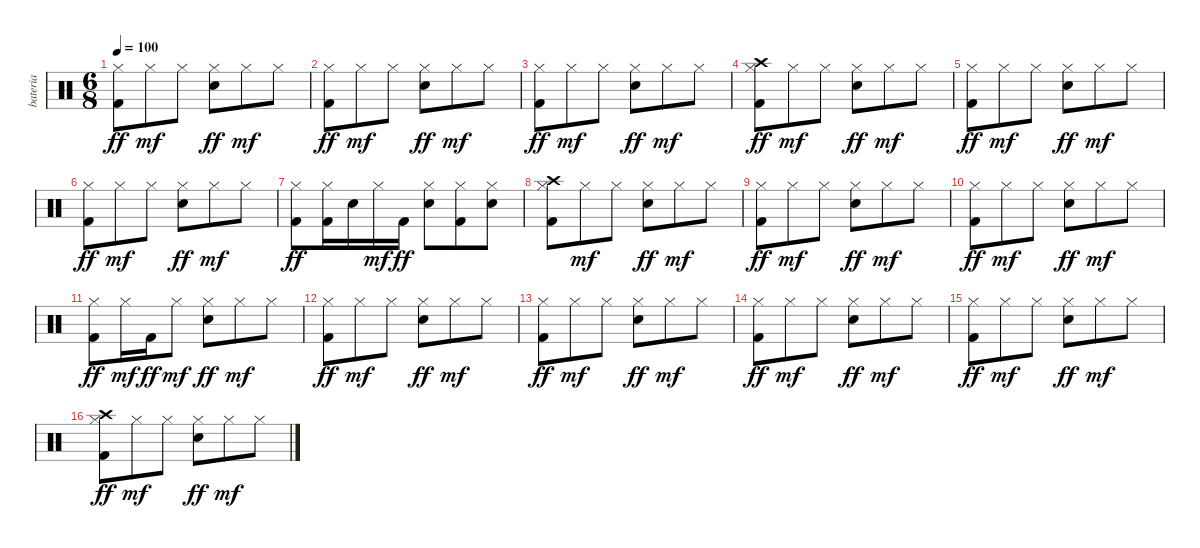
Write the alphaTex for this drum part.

\track ("bateria" "bateria") {instrument percussion}
\staff {score}
\articulation defaults
\ts (6 8)
\tempo 100
\clef neutral
\ks c
("Hi-Hat (closed)" "Kick (hit) 2").8{dy ff} "Hi-Hat (closed)".8{dy mf} "Hi-Hat (closed)".8 ("Hi-Hat (closed)" "Snare (hit) 2").8{dy ff} "Hi-Hat (closed)".8{dy mf} "Hi-Hat (closed)".8 |
("Hi-Hat (closed)" "Kick (hit) 2").8{dy ff} "Hi-Hat (closed)".8{dy mf} "Hi-Hat (closed)".8 ("Hi-Hat (closed)" "Snare (hit) 2").8{dy ff} "Hi-Hat (closed)".8{dy mf} "Hi-Hat (closed)".8 |
("Hi-Hat (closed)" "Kick (hit) 2").8{dy ff} "Hi-Hat (closed)".8{dy mf} "Hi-Hat (closed)".8 ("Hi-Hat (closed)" "Snare (hit) 2").8{dy ff} "Hi-Hat (closed)".8{dy mf} "Hi-Hat (closed)".8 |
("Crash high (hit)" "Hi-Hat (closed)" "Kick (hit) 2").8{dy ff} "Hi-Hat (closed)".8{dy mf} "Hi-Hat (closed)".8 ("Hi-Hat (closed)" "Snare (hit) 2").8{dy ff} "Hi-Hat (closed)".8{dy mf} "Hi-Hat (closed)".8 |
("Hi-Hat (closed)" "Kick (hit) 2").8{dy ff} "Hi-Hat (closed)".8{dy mf} "Hi-Hat (closed)".8 ("Hi-Hat (closed)" "Snare (hit) 2").8{dy ff} "Hi-Hat (closed)".8{dy mf} "Hi-Hat (closed)".8 |
("Hi-Hat (closed)" "Kick (hit) 2").8{dy ff} "Hi-Hat (closed)".8{dy mf} "Hi-Hat (closed)".8 ("Hi-Hat (closed)" "Snare (hit) 2").8{dy ff} "Hi-Hat (closed)".8{dy mf} "Hi-Hat (closed)".8 |
("Hi-Hat (closed)" "Kick (hit) 2").8{dy ff} ("Hi-Hat (closed)" "Kick (hit) 2").16 "Snare (hit) 2".16 "Hi-Hat (closed)".16{dy mf} "Kick (hit) 2".16{dy ff} ("Hi-Hat (closed)" "Snare (hit) 2").8 ("Hi-Hat (closed)" "Kick (hit) 2").8 ("Hi-Hat (closed)" "Snare (hit) 2").8 |
("Crash high (hit)" "Hi-Hat (closed)" "Kick (hit) 2").8 "Hi-Hat (closed)".8{dy mf} "Hi-Hat (closed)".8 ("Hi-Hat (closed)" "Snare (hit) 2").8{dy ff} "Hi-Hat (closed)".8{dy mf} "Hi-Hat (closed)".8 |
("Hi-Hat (closed)" "Kick (hit) 2").8{dy ff} "Hi-Hat (closed)".8{dy mf} "Hi-Hat (closed)".8 ("Hi-Hat (closed)" "Snare (hit) 2").8{dy ff} "Hi-Hat (closed)".8{dy mf} "Hi-Hat (closed)".8 |
("Hi-Hat (closed)" "Kick (hit) 2").8{dy ff} "Hi-Hat (closed)".8{dy mf} "Hi-Hat (closed)".8 ("Hi-Hat (closed)" "Snare (hit) 2").8{dy ff} "Hi-Hat (closed)".8{dy mf} "Hi-Hat (closed)".8 |
("Hi-Hat (closed)" "Kick (hit) 2").8{dy ff} "Hi-Hat (closed)".16{dy mf} "Kick (hit) 2".16{dy ff} "Hi-Hat (closed)".8{dy mf} ("Hi-Hat (closed)" "Snare (hit) 2").8{dy ff} "Hi-Hat (closed)".8{dy mf} "Hi-Hat (closed)".8 |
("Hi-Hat (closed)" "Kick (hit) 2").8{dy ff} "Hi-Hat (closed)".8{dy mf} "Hi-Hat (closed)".8 ("Hi-Hat (closed)" "Snare (hit) 2").8{dy ff} "Hi-Hat (closed)".8{dy mf} "Hi-Hat (closed)".8 |
("Hi-Hat (closed)" "Kick (hit) 2").8{dy ff} "Hi-Hat (closed)".8{dy mf} "Hi-Hat (closed)".8 ("Hi-Hat (closed)" "Snare (hit) 2").8{dy ff} "Hi-Hat (closed)".8{dy mf} "Hi-Hat (closed)".8 |
("Hi-Hat (closed)" "Kick (hit) 2").8{dy ff} "Hi-Hat (closed)".8{dy mf} "Hi-Hat (closed)".8 ("Hi-Hat (closed)" "Snare (hit) 2").8{dy ff} "Hi-Hat (closed)".8{dy mf} "Hi-Hat (closed)".8 |
("Hi-Hat (closed)" "Kick (hit) 2").8{dy ff} "Hi-Hat (closed)".8{dy mf} "Hi-Hat (closed)".8 ("Hi-Hat (closed)" "Snare (hit) 2").8{dy ff} "Hi-Hat (closed)".8{dy mf} "Hi-Hat (closed)".8 |
("Crash high (hit)" "Hi-Hat (closed)" "Kick (hit) 2").8{dy ff} "Hi-Hat (closed)".8{dy mf} "Hi-Hat (closed)".8 ("Hi-Hat (closed)" "Snare (hit) 2").8{dy ff} "Hi-Hat (closed)".8{dy mf} "Hi-Hat (closed)".8
